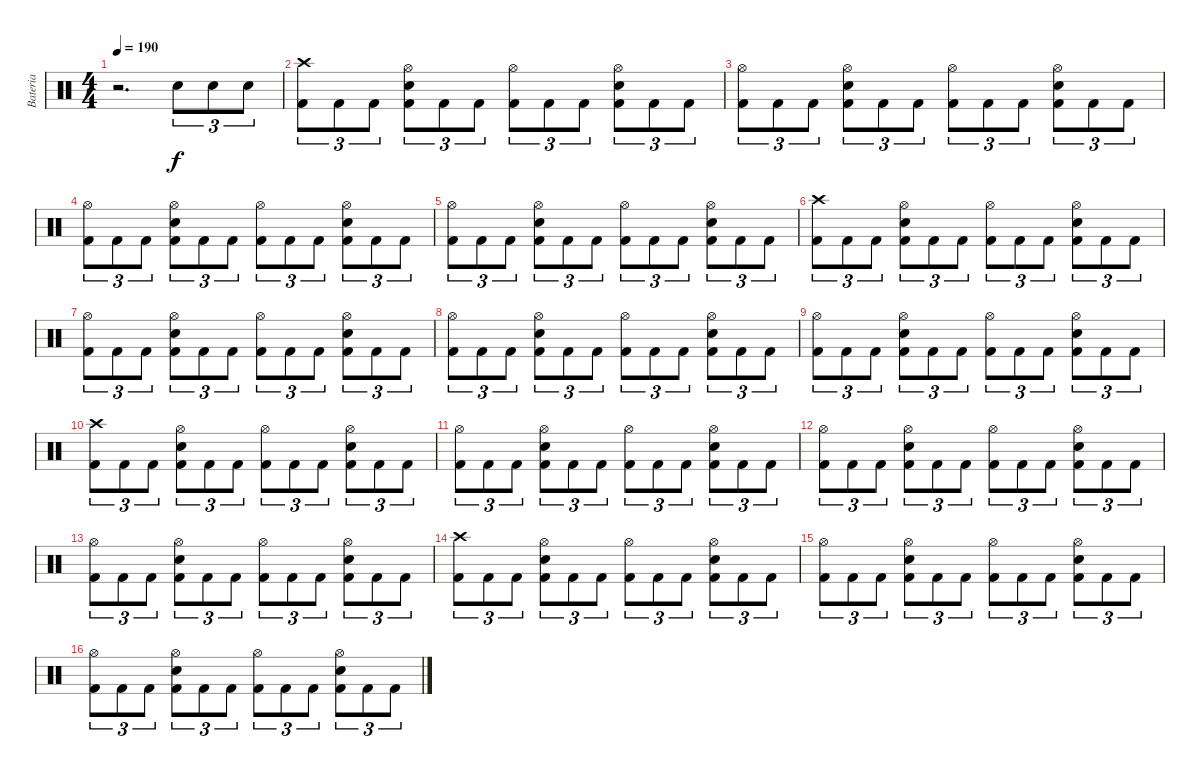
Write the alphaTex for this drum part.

\track ("Bateria" "Bateria") {instrument percussion}
\staff {score}
\articulation defaults
\ts (4 4)
\tempo 190
\clef neutral
\ks c
r.2{d dy f} "Electric Snare (hit)".8{tu (3 2)} "Electric Snare (hit)".8{tu (3 2)} "Electric Snare (hit)".8{tu (3 2)} |
("Crash high (hit)" "Kick (hit) 2").8{tu (3 2)} "Kick (hit) 2".8{tu (3 2)} "Kick (hit) 2".8{tu (3 2)} ("Hi-Hat (open)" "Electric Snare (hit)" "Kick (hit) 2").8{tu (3 2)} "Kick (hit) 2".8{tu (3 2)} "Kick (hit) 2".8{tu (3 2)} ("Hi-Hat (open)" "Kick (hit) 2").8{tu (3 2)} "Kick (hit) 2".8{tu (3 2)} "Kick (hit) 2".8{tu (3 2)} ("Hi-Hat (open)" "Electric Snare (hit)" "Kick (hit) 2").8{tu (3 2)} "Kick (hit) 2".8{tu (3 2)} "Kick (hit) 2".8{tu (3 2)} |
("Hi-Hat (open)" "Kick (hit) 2").8{tu (3 2)} "Kick (hit) 2".8{tu (3 2)} "Kick (hit) 2".8{tu (3 2)} ("Hi-Hat (open)" "Electric Snare (hit)" "Kick (hit) 2").8{tu (3 2)} "Kick (hit) 2".8{tu (3 2)} "Kick (hit) 2".8{tu (3 2)} ("Hi-Hat (open)" "Kick (hit) 2").8{tu (3 2)} "Kick (hit) 2".8{tu (3 2)} "Kick (hit) 2".8{tu (3 2)} ("Hi-Hat (open)" "Electric Snare (hit)" "Kick (hit) 2").8{tu (3 2)} "Kick (hit) 2".8{tu (3 2)} "Kick (hit) 2".8{tu (3 2)} |
("Hi-Hat (open)" "Kick (hit) 2").8{tu (3 2)} "Kick (hit) 2".8{tu (3 2)} "Kick (hit) 2".8{tu (3 2)} ("Hi-Hat (open)" "Electric Snare (hit)" "Kick (hit) 2").8{tu (3 2)} "Kick (hit) 2".8{tu (3 2)} "Kick (hit) 2".8{tu (3 2)} ("Hi-Hat (open)" "Kick (hit) 2").8{tu (3 2)} "Kick (hit) 2".8{tu (3 2)} "Kick (hit) 2".8{tu (3 2)} ("Hi-Hat (open)" "Electric Snare (hit)" "Kick (hit) 2").8{tu (3 2)} "Kick (hit) 2".8{tu (3 2)} "Kick (hit) 2".8{tu (3 2)} |
("Hi-Hat (open)" "Kick (hit) 2").8{tu (3 2)} "Kick (hit) 2".8{tu (3 2)} "Kick (hit) 2".8{tu (3 2)} ("Hi-Hat (open)" "Electric Snare (hit)" "Kick (hit) 2").8{tu (3 2)} "Kick (hit) 2".8{tu (3 2)} "Kick (hit) 2".8{tu (3 2)} ("Hi-Hat (open)" "Kick (hit) 2").8{tu (3 2)} "Kick (hit) 2".8{tu (3 2)} "Kick (hit) 2".8{tu (3 2)} ("Hi-Hat (open)" "Electric Snare (hit)" "Kick (hit) 2").8{tu (3 2)} "Kick (hit) 2".8{tu (3 2)} "Kick (hit) 2".8{tu (3 2)} |
("Crash high (hit)" "Kick (hit) 2").8{tu (3 2)} "Kick (hit) 2".8{tu (3 2)} "Kick (hit) 2".8{tu (3 2)} ("Hi-Hat (open)" "Electric Snare (hit)" "Kick (hit) 2").8{tu (3 2)} "Kick (hit) 2".8{tu (3 2)} "Kick (hit) 2".8{tu (3 2)} ("Hi-Hat (open)" "Kick (hit) 2").8{tu (3 2)} "Kick (hit) 2".8{tu (3 2)} "Kick (hit) 2".8{tu (3 2)} ("Hi-Hat (open)" "Electric Snare (hit)" "Kick (hit) 2").8{tu (3 2)} "Kick (hit) 2".8{tu (3 2)} "Kick (hit) 2".8{tu (3 2)} |
("Hi-Hat (open)" "Kick (hit) 2").8{tu (3 2)} "Kick (hit) 2".8{tu (3 2)} "Kick (hit) 2".8{tu (3 2)} ("Hi-Hat (open)" "Electric Snare (hit)" "Kick (hit) 2").8{tu (3 2)} "Kick (hit) 2".8{tu (3 2)} "Kick (hit) 2".8{tu (3 2)} ("Hi-Hat (open)" "Kick (hit) 2").8{tu (3 2)} "Kick (hit) 2".8{tu (3 2)} "Kick (hit) 2".8{tu (3 2)} ("Hi-Hat (open)" "Electric Snare (hit)" "Kick (hit) 2").8{tu (3 2)} "Kick (hit) 2".8{tu (3 2)} "Kick (hit) 2".8{tu (3 2)} |
("Hi-Hat (open)" "Kick (hit) 2").8{tu (3 2)} "Kick (hit) 2".8{tu (3 2)} "Kick (hit) 2".8{tu (3 2)} ("Hi-Hat (open)" "Electric Snare (hit)" "Kick (hit) 2").8{tu (3 2)} "Kick (hit) 2".8{tu (3 2)} "Kick (hit) 2".8{tu (3 2)} ("Hi-Hat (open)" "Kick (hit) 2").8{tu (3 2)} "Kick (hit) 2".8{tu (3 2)} "Kick (hit) 2".8{tu (3 2)} ("Hi-Hat (open)" "Electric Snare (hit)" "Kick (hit) 2").8{tu (3 2)} "Kick (hit) 2".8{tu (3 2)} "Kick (hit) 2".8{tu (3 2)} |
("Hi-Hat (open)" "Kick (hit) 2").8{tu (3 2)} "Kick (hit) 2".8{tu (3 2)} "Kick (hit) 2".8{tu (3 2)} ("Hi-Hat (open)" "Electric Snare (hit)" "Kick (hit) 2").8{tu (3 2)} "Kick (hit) 2".8{tu (3 2)} "Kick (hit) 2".8{tu (3 2)} ("Hi-Hat (open)" "Kick (hit) 2").8{tu (3 2)} "Kick (hit) 2".8{tu (3 2)} "Kick (hit) 2".8{tu (3 2)} ("Hi-Hat (open)" "Electric Snare (hit)" "Kick (hit) 2").8{tu (3 2)} "Kick (hit) 2".8{tu (3 2)} "Kick (hit) 2".8{tu (3 2)} |
("Crash high (hit)" "Kick (hit) 2").8{tu (3 2)} "Kick (hit) 2".8{tu (3 2)} "Kick (hit) 2".8{tu (3 2)} ("Hi-Hat (open)" "Electric Snare (hit)" "Kick (hit) 2").8{tu (3 2)} "Kick (hit) 2".8{tu (3 2)} "Kick (hit) 2".8{tu (3 2)} ("Hi-Hat (open)" "Kick (hit) 2").8{tu (3 2)} "Kick (hit) 2".8{tu (3 2)} "Kick (hit) 2".8{tu (3 2)} ("Hi-Hat (open)" "Electric Snare (hit)" "Kick (hit) 2").8{tu (3 2)} "Kick (hit) 2".8{tu (3 2)} "Kick (hit) 2".8{tu (3 2)} |
("Hi-Hat (open)" "Kick (hit) 2").8{tu (3 2)} "Kick (hit) 2".8{tu (3 2)} "Kick (hit) 2".8{tu (3 2)} ("Hi-Hat (open)" "Electric Snare (hit)" "Kick (hit) 2").8{tu (3 2)} "Kick (hit) 2".8{tu (3 2)} "Kick (hit) 2".8{tu (3 2)} ("Hi-Hat (open)" "Kick (hit) 2").8{tu (3 2)} "Kick (hit) 2".8{tu (3 2)} "Kick (hit) 2".8{tu (3 2)} ("Hi-Hat (open)" "Electric Snare (hit)" "Kick (hit) 2").8{tu (3 2)} "Kick (hit) 2".8{tu (3 2)} "Kick (hit) 2".8{tu (3 2)} |
("Hi-Hat (open)" "Kick (hit) 2").8{tu (3 2)} "Kick (hit) 2".8{tu (3 2)} "Kick (hit) 2".8{tu (3 2)} ("Hi-Hat (open)" "Electric Snare (hit)" "Kick (hit) 2").8{tu (3 2)} "Kick (hit) 2".8{tu (3 2)} "Kick (hit) 2".8{tu (3 2)} ("Hi-Hat (open)" "Kick (hit) 2").8{tu (3 2)} "Kick (hit) 2".8{tu (3 2)} "Kick (hit) 2".8{tu (3 2)} ("Hi-Hat (open)" "Electric Snare (hit)" "Kick (hit) 2").8{tu (3 2)} "Kick (hit) 2".8{tu (3 2)} "Kick (hit) 2".8{tu (3 2)} |
("Hi-Hat (open)" "Kick (hit) 2").8{tu (3 2)} "Kick (hit) 2".8{tu (3 2)} "Kick (hit) 2".8{tu (3 2)} ("Hi-Hat (open)" "Electric Snare (hit)" "Kick (hit) 2").8{tu (3 2)} "Kick (hit) 2".8{tu (3 2)} "Kick (hit) 2".8{tu (3 2)} ("Hi-Hat (open)" "Kick (hit) 2").8{tu (3 2)} "Kick (hit) 2".8{tu (3 2)} "Kick (hit) 2".8{tu (3 2)} ("Hi-Hat (open)" "Electric Snare (hit)" "Kick (hit) 2").8{tu (3 2)} "Kick (hit) 2".8{tu (3 2)} "Kick (hit) 2".8{tu (3 2)} |
("Crash high (hit)" "Kick (hit) 2").8{tu (3 2)} "Kick (hit) 2".8{tu (3 2)} "Kick (hit) 2".8{tu (3 2)} ("Hi-Hat (open)" "Electric Snare (hit)" "Kick (hit) 2").8{tu (3 2)} "Kick (hit) 2".8{tu (3 2)} "Kick (hit) 2".8{tu (3 2)} ("Hi-Hat (open)" "Kick (hit) 2").8{tu (3 2)} "Kick (hit) 2".8{tu (3 2)} "Kick (hit) 2".8{tu (3 2)} ("Hi-Hat (open)" "Electric Snare (hit)" "Kick (hit) 2").8{tu (3 2)} "Kick (hit) 2".8{tu (3 2)} "Kick (hit) 2".8{tu (3 2)} |
("Hi-Hat (open)" "Kick (hit) 2").8{tu (3 2)} "Kick (hit) 2".8{tu (3 2)} "Kick (hit) 2".8{tu (3 2)} ("Hi-Hat (open)" "Electric Snare (hit)" "Kick (hit) 2").8{tu (3 2)} "Kick (hit) 2".8{tu (3 2)} "Kick (hit) 2".8{tu (3 2)} ("Hi-Hat (open)" "Kick (hit) 2").8{tu (3 2)} "Kick (hit) 2".8{tu (3 2)} "Kick (hit) 2".8{tu (3 2)} ("Hi-Hat (open)" "Electric Snare (hit)" "Kick (hit) 2").8{tu (3 2)} "Kick (hit) 2".8{tu (3 2)} "Kick (hit) 2".8{tu (3 2)} |
("Hi-Hat (open)" "Kick (hit) 2").8{tu (3 2)} "Kick (hit) 2".8{tu (3 2)} "Kick (hit) 2".8{tu (3 2)} ("Hi-Hat (open)" "Electric Snare (hit)" "Kick (hit) 2").8{tu (3 2)} "Kick (hit) 2".8{tu (3 2)} "Kick (hit) 2".8{tu (3 2)} ("Hi-Hat (open)" "Kick (hit) 2").8{tu (3 2)} "Kick (hit) 2".8{tu (3 2)} "Kick (hit) 2".8{tu (3 2)} ("Hi-Hat (open)" "Electric Snare (hit)" "Kick (hit) 2").8{tu (3 2)} "Kick (hit) 2".8{tu (3 2)} "Kick (hit) 2".8{tu (3 2)}
